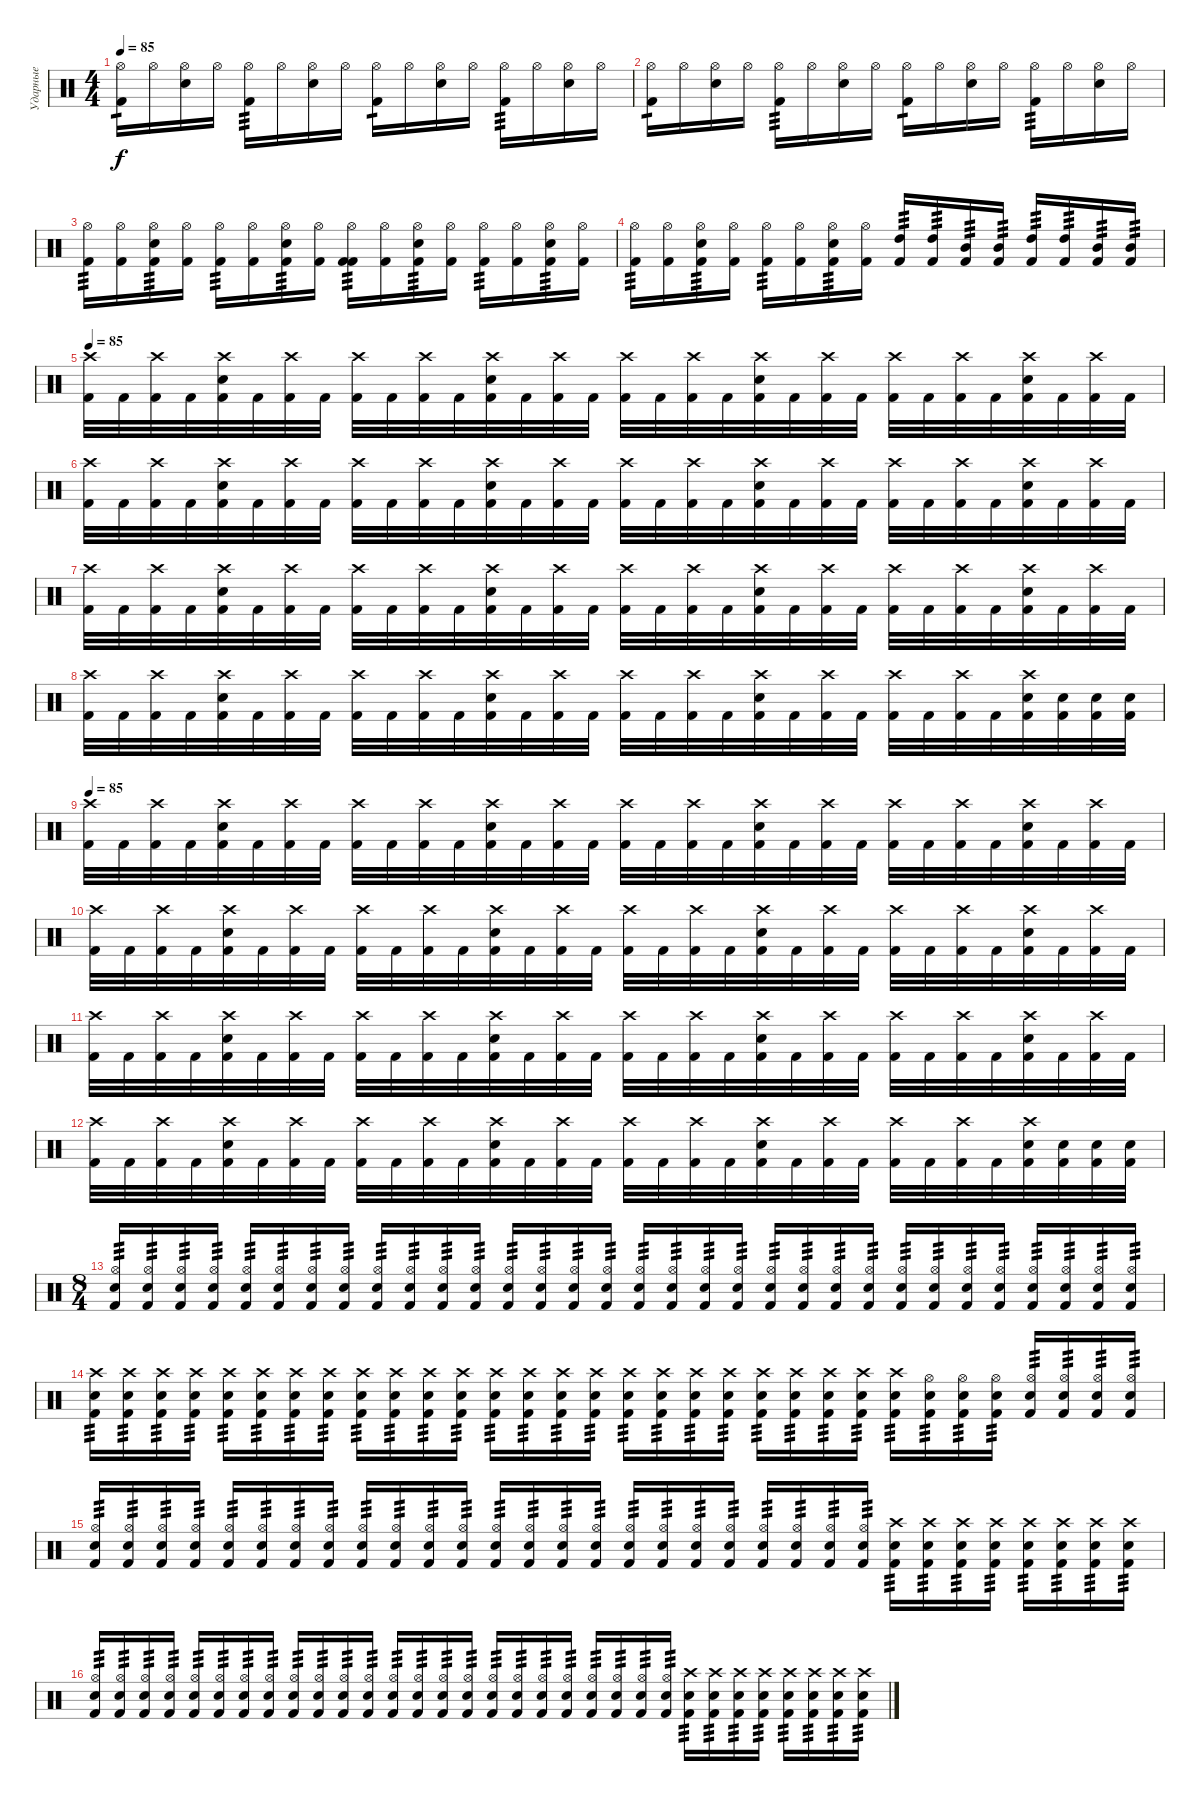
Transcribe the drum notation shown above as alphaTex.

\track ("Ударные" "Ударные") {instrument percussion}
\staff {score}
\articulation defaults
\ts (4 4)
\tempo 85
\clef neutral
\ks c
("Kick (hit) 2" "Hi-Hat (open)").16{tp 1 dy f} "Hi-Hat (open)".16 ("Snare (hit) 2" "Hi-Hat (open)").16 "Hi-Hat (open)".16 ("Kick (hit) 2" "Hi-Hat (open)").16{tp 3} "Hi-Hat (open)".16 ("Snare (hit) 2" "Hi-Hat (open)").16 "Hi-Hat (open)".16 ("Kick (hit) 2" "Hi-Hat (open)").16{tp 1} "Hi-Hat (open)".16 ("Snare (hit) 2" "Hi-Hat (open)").16 "Hi-Hat (open)".16 ("Kick (hit) 2" "Hi-Hat (open)").16{tp 3} "Hi-Hat (open)".16 ("Snare (hit) 2" "Hi-Hat (open)").16 "Hi-Hat (open)".16 |
("Kick (hit) 2" "Hi-Hat (open)").16{tp 1} "Hi-Hat (open)".16 ("Snare (hit) 2" "Hi-Hat (open)").16 "Hi-Hat (open)".16 ("Kick (hit) 2" "Hi-Hat (open)").16{tp 3} "Hi-Hat (open)".16 ("Snare (hit) 2" "Hi-Hat (open)").16 "Hi-Hat (open)".16 ("Kick (hit) 2" "Hi-Hat (open)").16{tp 1} "Hi-Hat (open)".16 ("Snare (hit) 2" "Hi-Hat (open)").16 "Hi-Hat (open)".16 ("Kick (hit) 2" "Hi-Hat (open)").16{tp 3} "Hi-Hat (open)".16 ("Snare (hit) 2" "Hi-Hat (open)").16 "Hi-Hat (open)".16 |
("Kick (hit) 2" "Hi-Hat (open)").16{tp 3} ("Hi-Hat (open)" "Kick (hit) 2").16 ("Snare (hit) 2" "Hi-Hat (open)" "Kick (hit) 2").16{tp 3} ("Hi-Hat (open)" "Kick (hit) 2").16 ("Kick (hit) 2" "Hi-Hat (open)").16{tp 3} ("Hi-Hat (open)" "Kick (hit) 2").16 ("Snare (hit) 2" "Hi-Hat (open)" "Kick (hit) 2").16{tp 3} ("Hi-Hat (open)" "Kick (hit) 2").16 ("Kick (hit) 2" "Hi-Hat (open)" "Kick (hit) 2").16{tp 3} ("Hi-Hat (open)" "Kick (hit) 2").16 ("Snare (hit) 2" "Hi-Hat (open)" "Kick (hit) 2").16{tp 3} ("Hi-Hat (open)" "Kick (hit) 2").16 ("Kick (hit) 2" "Hi-Hat (open)").16{tp 3} ("Hi-Hat (open)" "Kick (hit) 2").16 ("Snare (hit) 2" "Hi-Hat (open)" "Kick (hit) 2").16{tp 3} ("Hi-Hat (open)" "Kick (hit) 2").16 |
("Kick (hit) 2" "Hi-Hat (open)").16{tp 3} ("Hi-Hat (open)" "Kick (hit) 2").16 ("Snare (hit) 2" "Hi-Hat (open)" "Kick (hit) 2").16{tp 3} ("Hi-Hat (open)" "Kick (hit) 2").16 ("Kick (hit) 2" "Hi-Hat (open)").16{tp 3} ("Hi-Hat (open)" "Kick (hit) 2").16 ("Snare (hit) 2" "Hi-Hat (open)" "Kick (hit) 2").16{tp 3} ("Hi-Hat (open)" "Kick (hit) 2").16 ("High Tom (hit)" "Kick (hit) 2").16{tp 3} ("High Tom (hit)" "Kick (hit) 2").16{tp 3} ("Mid Tom (hit)" "Kick (hit) 2").16{tp 3} ("Mid Tom (hit)" "Kick (hit) 2").16{tp 3} ("High Tom (hit)" "Kick (hit) 2").16{tp 3} ("High Tom (hit)" "Kick (hit) 2").16{tp 3} ("Mid Tom (hit)" "Kick (hit) 2").16{tp 3} ("Mid Tom (hit)" "Kick (hit) 2").16{tp 3} |
\tempo 85
("Kick (hit) 2" "Crash high (hit)").32 "Kick (hit) 2".32 ("Kick (hit) 2" "Crash high (hit)").32 "Kick (hit) 2".32 ("Kick (hit) 2" "Snare (hit) 2" "Crash high (hit)").32 "Kick (hit) 2".32 ("Kick (hit) 2" "Crash high (hit)").32 "Kick (hit) 2".32 ("Kick (hit) 2" "Crash high (hit)").32 "Kick (hit) 2".32 ("Kick (hit) 2" "Crash high (hit)").32 "Kick (hit) 2".32 ("Kick (hit) 2" "Snare (hit) 2" "Crash high (hit)").32 "Kick (hit) 2".32 ("Kick (hit) 2" "Crash high (hit)").32 "Kick (hit) 2".32 ("Kick (hit) 2" "Crash high (hit)").32 "Kick (hit) 2".32 ("Kick (hit) 2" "Crash high (hit)").32 "Kick (hit) 2".32 ("Kick (hit) 2" "Snare (hit) 2" "Crash high (hit)").32 "Kick (hit) 2".32 ("Kick (hit) 2" "Crash high (hit)").32 "Kick (hit) 2".32 ("Kick (hit) 2" "Crash high (hit)").32 "Kick (hit) 2".32 ("Kick (hit) 2" "Crash high (hit)").32 "Kick (hit) 2".32 ("Kick (hit) 2" "Snare (hit) 2" "Crash high (hit)").32 "Kick (hit) 2".32 ("Kick (hit) 2" "Crash high (hit)").32 "Kick (hit) 2".32 |
("Kick (hit) 2" "Crash high (hit)").32 "Kick (hit) 2".32 ("Kick (hit) 2" "Crash high (hit)").32 "Kick (hit) 2".32 ("Kick (hit) 2" "Snare (hit) 2" "Crash high (hit)").32 "Kick (hit) 2".32 ("Kick (hit) 2" "Crash high (hit)").32 "Kick (hit) 2".32 ("Kick (hit) 2" "Crash high (hit)").32 "Kick (hit) 2".32 ("Kick (hit) 2" "Crash high (hit)").32 "Kick (hit) 2".32 ("Kick (hit) 2" "Snare (hit) 2" "Crash high (hit)").32 "Kick (hit) 2".32 ("Kick (hit) 2" "Crash high (hit)").32 "Kick (hit) 2".32 ("Kick (hit) 2" "Crash high (hit)").32 "Kick (hit) 2".32 ("Kick (hit) 2" "Crash high (hit)").32 "Kick (hit) 2".32 ("Kick (hit) 2" "Snare (hit) 2" "Crash high (hit)").32 "Kick (hit) 2".32 ("Kick (hit) 2" "Crash high (hit)").32 "Kick (hit) 2".32 ("Kick (hit) 2" "Crash high (hit)").32 "Kick (hit) 2".32 ("Kick (hit) 2" "Crash high (hit)").32 "Kick (hit) 2".32 ("Kick (hit) 2" "Snare (hit) 2" "Crash high (hit)").32 "Kick (hit) 2".32 ("Kick (hit) 2" "Crash high (hit)").32 "Kick (hit) 2".32 |
("Kick (hit) 2" "Crash high (hit)").32 "Kick (hit) 2".32 ("Kick (hit) 2" "Crash high (hit)").32 "Kick (hit) 2".32 ("Kick (hit) 2" "Snare (hit) 2" "Crash high (hit)").32 "Kick (hit) 2".32 ("Kick (hit) 2" "Crash high (hit)").32 "Kick (hit) 2".32 ("Kick (hit) 2" "Crash high (hit)").32 "Kick (hit) 2".32 ("Kick (hit) 2" "Crash high (hit)").32 "Kick (hit) 2".32 ("Kick (hit) 2" "Snare (hit) 2" "Crash high (hit)").32 "Kick (hit) 2".32 ("Kick (hit) 2" "Crash high (hit)").32 "Kick (hit) 2".32 ("Kick (hit) 2" "Crash high (hit)").32 "Kick (hit) 2".32 ("Kick (hit) 2" "Crash high (hit)").32 "Kick (hit) 2".32 ("Kick (hit) 2" "Snare (hit) 2" "Crash high (hit)").32 "Kick (hit) 2".32 ("Kick (hit) 2" "Crash high (hit)").32 "Kick (hit) 2".32 ("Kick (hit) 2" "Crash high (hit)").32 "Kick (hit) 2".32 ("Kick (hit) 2" "Crash high (hit)").32 "Kick (hit) 2".32 ("Kick (hit) 2" "Snare (hit) 2" "Crash high (hit)").32 "Kick (hit) 2".32 ("Kick (hit) 2" "Crash high (hit)").32 "Kick (hit) 2".32 |
("Kick (hit) 2" "Crash high (hit)").32 "Kick (hit) 2".32 ("Kick (hit) 2" "Crash high (hit)").32 "Kick (hit) 2".32 ("Kick (hit) 2" "Snare (hit) 2" "Crash high (hit)").32 "Kick (hit) 2".32 ("Kick (hit) 2" "Crash high (hit)").32 "Kick (hit) 2".32 ("Kick (hit) 2" "Crash high (hit)").32 "Kick (hit) 2".32 ("Kick (hit) 2" "Crash high (hit)").32 "Kick (hit) 2".32 ("Kick (hit) 2" "Snare (hit) 2" "Crash high (hit)").32 "Kick (hit) 2".32 ("Kick (hit) 2" "Crash high (hit)").32 "Kick (hit) 2".32 ("Kick (hit) 2" "Crash high (hit)").32 "Kick (hit) 2".32 ("Kick (hit) 2" "Crash high (hit)").32 "Kick (hit) 2".32 ("Kick (hit) 2" "Snare (hit) 2" "Crash high (hit)").32 "Kick (hit) 2".32 ("Kick (hit) 2" "Crash high (hit)").32 "Kick (hit) 2".32 ("Kick (hit) 2" "Crash high (hit)").32 "Kick (hit) 2".32 ("Kick (hit) 2" "Crash high (hit)").32 "Kick (hit) 2".32 ("Kick (hit) 2" "Snare (hit) 2" "Crash high (hit)").32 ("Kick (hit) 2" "Snare (hit) 2").32 ("Kick (hit) 2" "Snare (hit) 2").32 ("Kick (hit) 2" "Snare (hit) 2").32 |
\tempo 85
("Kick (hit) 2" "Crash high (hit)").32 "Kick (hit) 2".32 ("Kick (hit) 2" "Crash high (hit)").32 "Kick (hit) 2".32 ("Kick (hit) 2" "Snare (hit) 2" "Crash high (hit)").32 "Kick (hit) 2".32 ("Kick (hit) 2" "Crash high (hit)").32 "Kick (hit) 2".32 ("Kick (hit) 2" "Crash high (hit)").32 "Kick (hit) 2".32 ("Kick (hit) 2" "Crash high (hit)").32 "Kick (hit) 2".32 ("Kick (hit) 2" "Snare (hit) 2" "Crash high (hit)").32 "Kick (hit) 2".32 ("Kick (hit) 2" "Crash high (hit)").32 "Kick (hit) 2".32 ("Kick (hit) 2" "Crash high (hit)").32 "Kick (hit) 2".32 ("Kick (hit) 2" "Crash high (hit)").32 "Kick (hit) 2".32 ("Kick (hit) 2" "Snare (hit) 2" "Crash high (hit)").32 "Kick (hit) 2".32 ("Kick (hit) 2" "Crash high (hit)").32 "Kick (hit) 2".32 ("Kick (hit) 2" "Crash high (hit)").32 "Kick (hit) 2".32 ("Kick (hit) 2" "Crash high (hit)").32 "Kick (hit) 2".32 ("Kick (hit) 2" "Snare (hit) 2" "Crash high (hit)").32 "Kick (hit) 2".32 ("Kick (hit) 2" "Crash high (hit)").32 "Kick (hit) 2".32 |
("Kick (hit) 2" "Crash high (hit)").32 "Kick (hit) 2".32 ("Kick (hit) 2" "Crash high (hit)").32 "Kick (hit) 2".32 ("Kick (hit) 2" "Snare (hit) 2" "Crash high (hit)").32 "Kick (hit) 2".32 ("Kick (hit) 2" "Crash high (hit)").32 "Kick (hit) 2".32 ("Kick (hit) 2" "Crash high (hit)").32 "Kick (hit) 2".32 ("Kick (hit) 2" "Crash high (hit)").32 "Kick (hit) 2".32 ("Kick (hit) 2" "Snare (hit) 2" "Crash high (hit)").32 "Kick (hit) 2".32 ("Kick (hit) 2" "Crash high (hit)").32 "Kick (hit) 2".32 ("Kick (hit) 2" "Crash high (hit)").32 "Kick (hit) 2".32 ("Kick (hit) 2" "Crash high (hit)").32 "Kick (hit) 2".32 ("Kick (hit) 2" "Snare (hit) 2" "Crash high (hit)").32 "Kick (hit) 2".32 ("Kick (hit) 2" "Crash high (hit)").32 "Kick (hit) 2".32 ("Kick (hit) 2" "Crash high (hit)").32 "Kick (hit) 2".32 ("Kick (hit) 2" "Crash high (hit)").32 "Kick (hit) 2".32 ("Kick (hit) 2" "Snare (hit) 2" "Crash high (hit)").32 "Kick (hit) 2".32 ("Kick (hit) 2" "Crash high (hit)").32 "Kick (hit) 2".32 |
("Kick (hit) 2" "Crash high (hit)").32 "Kick (hit) 2".32 ("Kick (hit) 2" "Crash high (hit)").32 "Kick (hit) 2".32 ("Kick (hit) 2" "Snare (hit) 2" "Crash high (hit)").32 "Kick (hit) 2".32 ("Kick (hit) 2" "Crash high (hit)").32 "Kick (hit) 2".32 ("Kick (hit) 2" "Crash high (hit)").32 "Kick (hit) 2".32 ("Kick (hit) 2" "Crash high (hit)").32 "Kick (hit) 2".32 ("Kick (hit) 2" "Snare (hit) 2" "Crash high (hit)").32 "Kick (hit) 2".32 ("Kick (hit) 2" "Crash high (hit)").32 "Kick (hit) 2".32 ("Kick (hit) 2" "Crash high (hit)").32 "Kick (hit) 2".32 ("Kick (hit) 2" "Crash high (hit)").32 "Kick (hit) 2".32 ("Kick (hit) 2" "Snare (hit) 2" "Crash high (hit)").32 "Kick (hit) 2".32 ("Kick (hit) 2" "Crash high (hit)").32 "Kick (hit) 2".32 ("Kick (hit) 2" "Crash high (hit)").32 "Kick (hit) 2".32 ("Kick (hit) 2" "Crash high (hit)").32 "Kick (hit) 2".32 ("Kick (hit) 2" "Snare (hit) 2" "Crash high (hit)").32 "Kick (hit) 2".32 ("Kick (hit) 2" "Crash high (hit)").32 "Kick (hit) 2".32 |
("Kick (hit) 2" "Crash high (hit)").32 "Kick (hit) 2".32 ("Kick (hit) 2" "Crash high (hit)").32 "Kick (hit) 2".32 ("Kick (hit) 2" "Snare (hit) 2" "Crash high (hit)").32 "Kick (hit) 2".32 ("Kick (hit) 2" "Crash high (hit)").32 "Kick (hit) 2".32 ("Kick (hit) 2" "Crash high (hit)").32 "Kick (hit) 2".32 ("Kick (hit) 2" "Crash high (hit)").32 "Kick (hit) 2".32 ("Kick (hit) 2" "Snare (hit) 2" "Crash high (hit)").32 "Kick (hit) 2".32 ("Kick (hit) 2" "Crash high (hit)").32 "Kick (hit) 2".32 ("Kick (hit) 2" "Crash high (hit)").32 "Kick (hit) 2".32 ("Kick (hit) 2" "Crash high (hit)").32 "Kick (hit) 2".32 ("Kick (hit) 2" "Snare (hit) 2" "Crash high (hit)").32 "Kick (hit) 2".32 ("Kick (hit) 2" "Crash high (hit)").32 "Kick (hit) 2".32 ("Kick (hit) 2" "Crash high (hit)").32 "Kick (hit) 2".32 ("Kick (hit) 2" "Crash high (hit)").32 "Kick (hit) 2".32 ("Kick (hit) 2" "Snare (hit) 2" "Crash high (hit)").32 ("Kick (hit) 2" "Snare (hit) 2").32 ("Kick (hit) 2" "Snare (hit) 2").32 ("Kick (hit) 2" "Snare (hit) 2").32 |
\ts (8 4)
("Hi-Hat (open)" "Snare (hit) 2" "Kick (hit) 2").16{tp 3} ("Hi-Hat (open)" "Snare (hit) 2" "Kick (hit) 2").16{tp 3} ("Hi-Hat (open)" "Snare (hit) 2" "Kick (hit) 2").16{tp 3} ("Hi-Hat (open)" "Snare (hit) 2" "Kick (hit) 2").16{tp 3} ("Hi-Hat (open)" "Snare (hit) 2" "Kick (hit) 2").16{tp 3} ("Hi-Hat (open)" "Snare (hit) 2" "Kick (hit) 2").16{tp 3} ("Hi-Hat (open)" "Snare (hit) 2" "Kick (hit) 2").16{tp 3} ("Hi-Hat (open)" "Snare (hit) 2" "Kick (hit) 2").16{tp 3} ("Hi-Hat (open)" "Snare (hit) 2" "Kick (hit) 2").16{tp 3} ("Hi-Hat (open)" "Snare (hit) 2" "Kick (hit) 2").16{tp 3} ("Hi-Hat (open)" "Snare (hit) 2" "Kick (hit) 2").16{tp 3} ("Hi-Hat (open)" "Snare (hit) 2" "Kick (hit) 2").16{tp 3} ("Hi-Hat (open)" "Snare (hit) 2" "Kick (hit) 2").16{tp 3} ("Hi-Hat (open)" "Snare (hit) 2" "Kick (hit) 2").16{tp 3} ("Hi-Hat (open)" "Snare (hit) 2" "Kick (hit) 2").16{tp 3} ("Hi-Hat (open)" "Snare (hit) 2" "Kick (hit) 2").16{tp 3} ("Hi-Hat (open)" "Snare (hit) 2" "Kick (hit) 2").16{tp 3} ("Hi-Hat (open)" "Snare (hit) 2" "Kick (hit) 2").16{tp 3} ("Hi-Hat (open)" "Snare (hit) 2" "Kick (hit) 2").16{tp 3} ("Hi-Hat (open)" "Snare (hit) 2" "Kick (hit) 2").16{tp 3} ("Hi-Hat (open)" "Snare (hit) 2" "Kick (hit) 2").16{tp 3} ("Hi-Hat (open)" "Snare (hit) 2" "Kick (hit) 2").16{tp 3} ("Hi-Hat (open)" "Snare (hit) 2" "Kick (hit) 2").16{tp 3} ("Hi-Hat (open)" "Snare (hit) 2" "Kick (hit) 2").16{tp 3} ("Hi-Hat (open)" "Snare (hit) 2" "Kick (hit) 2").16{tp 3} ("Hi-Hat (open)" "Snare (hit) 2" "Kick (hit) 2").16{tp 3} ("Hi-Hat (open)" "Snare (hit) 2" "Kick (hit) 2").16{tp 3} ("Hi-Hat (open)" "Snare (hit) 2" "Kick (hit) 2").16{tp 3} ("Hi-Hat (open)" "Snare (hit) 2" "Kick (hit) 2").16{tp 3} ("Hi-Hat (open)" "Snare (hit) 2" "Kick (hit) 2").16{tp 3} ("Hi-Hat (open)" "Snare (hit) 2" "Kick (hit) 2").16{tp 3} ("Hi-Hat (open)" "Snare (hit) 2" "Kick (hit) 2").16{tp 3} |
("Crash high (hit)" "Snare (hit) 2" "Kick (hit) 2").16{tp 3} ("Crash high (hit)" "Snare (hit) 2" "Kick (hit) 2").16{tp 3} ("Crash high (hit)" "Snare (hit) 2" "Kick (hit) 2").16{tp 3} ("Crash high (hit)" "Snare (hit) 2" "Kick (hit) 2").16{tp 3} ("Crash high (hit)" "Snare (hit) 2" "Kick (hit) 2").16{tp 3} ("Crash high (hit)" "Snare (hit) 2" "Kick (hit) 2").16{tp 3} ("Crash high (hit)" "Snare (hit) 2" "Kick (hit) 2").16{tp 3} ("Crash high (hit)" "Snare (hit) 2" "Kick (hit) 2").16{tp 3} ("Crash high (hit)" "Snare (hit) 2" "Kick (hit) 2").16{tp 3} ("Crash high (hit)" "Snare (hit) 2" "Kick (hit) 2").16{tp 3} ("Crash high (hit)" "Snare (hit) 2" "Kick (hit) 2").16{tp 3} ("Crash high (hit)" "Snare (hit) 2" "Kick (hit) 2").16{tp 3} ("Crash high (hit)" "Snare (hit) 2" "Kick (hit) 2").16{tp 3} ("Crash high (hit)" "Snare (hit) 2" "Kick (hit) 2").16{tp 3} ("Crash high (hit)" "Snare (hit) 2" "Kick (hit) 2").16{tp 3} ("Crash high (hit)" "Snare (hit) 2" "Kick (hit) 2").16{tp 3} ("Crash high (hit)" "Snare (hit) 2" "Kick (hit) 2").16{tp 3} ("Crash high (hit)" "Snare (hit) 2" "Kick (hit) 2").16{tp 3} ("Crash high (hit)" "Snare (hit) 2" "Kick (hit) 2").16{tp 3} ("Crash high (hit)" "Snare (hit) 2" "Kick (hit) 2").16{tp 3} ("Crash high (hit)" "Snare (hit) 2" "Kick (hit) 2").16{tp 3} ("Crash high (hit)" "Snare (hit) 2" "Kick (hit) 2").16{tp 3} ("Crash high (hit)" "Snare (hit) 2" "Kick (hit) 2").16{tp 3} ("Crash high (hit)" "Snare (hit) 2" "Kick (hit) 2").16{tp 3} ("Crash high (hit)" "Snare (hit) 2" "Kick (hit) 2").16{tp 3} ("Hi-Hat (open)" "Snare (hit) 2" "Kick (hit) 2").16{tp 3} ("Hi-Hat (open)" "Snare (hit) 2" "Kick (hit) 2").16{tp 3} ("Hi-Hat (open)" "Snare (hit) 2" "Kick (hit) 2").16{tp 3} ("Hi-Hat (open)" "Snare (hit) 2" "Kick (hit) 2").16{tp 3} ("Hi-Hat (open)" "Snare (hit) 2" "Kick (hit) 2").16{tp 3} ("Hi-Hat (open)" "Snare (hit) 2" "Kick (hit) 2").16{tp 3} ("Hi-Hat (open)" "Snare (hit) 2" "Kick (hit) 2").16{tp 3} |
("Hi-Hat (open)" "Snare (hit) 2" "Kick (hit) 2").16{tp 3} ("Hi-Hat (open)" "Snare (hit) 2" "Kick (hit) 2").16{tp 3} ("Hi-Hat (open)" "Snare (hit) 2" "Kick (hit) 2").16{tp 3} ("Hi-Hat (open)" "Snare (hit) 2" "Kick (hit) 2").16{tp 3} ("Hi-Hat (open)" "Snare (hit) 2" "Kick (hit) 2").16{tp 3} ("Hi-Hat (open)" "Snare (hit) 2" "Kick (hit) 2").16{tp 3} ("Hi-Hat (open)" "Snare (hit) 2" "Kick (hit) 2").16{tp 3} ("Hi-Hat (open)" "Snare (hit) 2" "Kick (hit) 2").16{tp 3} ("Hi-Hat (open)" "Snare (hit) 2" "Kick (hit) 2").16{tp 3} ("Hi-Hat (open)" "Snare (hit) 2" "Kick (hit) 2").16{tp 3} ("Hi-Hat (open)" "Snare (hit) 2" "Kick (hit) 2").16{tp 3} ("Hi-Hat (open)" "Snare (hit) 2" "Kick (hit) 2").16{tp 3} ("Hi-Hat (open)" "Snare (hit) 2" "Kick (hit) 2").16{tp 3} ("Hi-Hat (open)" "Snare (hit) 2" "Kick (hit) 2").16{tp 3} ("Hi-Hat (open)" "Snare (hit) 2" "Kick (hit) 2").16{tp 3} ("Hi-Hat (open)" "Snare (hit) 2" "Kick (hit) 2").16{tp 3} ("Hi-Hat (open)" "Snare (hit) 2" "Kick (hit) 2").16{tp 3} ("Hi-Hat (open)" "Snare (hit) 2" "Kick (hit) 2").16{tp 3} ("Hi-Hat (open)" "Snare (hit) 2" "Kick (hit) 2").16{tp 3} ("Hi-Hat (open)" "Snare (hit) 2" "Kick (hit) 2").16{tp 3} ("Hi-Hat (open)" "Snare (hit) 2" "Kick (hit) 2").16{tp 3} ("Hi-Hat (open)" "Snare (hit) 2" "Kick (hit) 2").16{tp 3} ("Hi-Hat (open)" "Snare (hit) 2" "Kick (hit) 2").16{tp 3} ("Hi-Hat (open)" "Snare (hit) 2" "Kick (hit) 2").16{tp 3} ("Crash high (hit)" "Snare (hit) 2" "Kick (hit) 2").16{tp 3} ("Crash high (hit)" "Snare (hit) 2" "Kick (hit) 2").16{tp 3} ("Crash high (hit)" "Snare (hit) 2" "Kick (hit) 2").16{tp 3} ("Crash high (hit)" "Snare (hit) 2" "Kick (hit) 2").16{tp 3} ("Crash high (hit)" "Snare (hit) 2" "Kick (hit) 2").16{tp 3} ("Crash high (hit)" "Snare (hit) 2" "Kick (hit) 2").16{tp 3} ("Crash high (hit)" "Snare (hit) 2" "Kick (hit) 2").16{tp 3} ("Crash high (hit)" "Snare (hit) 2" "Kick (hit) 2").16{tp 3} |
("Hi-Hat (open)" "Snare (hit) 2" "Kick (hit) 2").16{tp 3} ("Hi-Hat (open)" "Snare (hit) 2" "Kick (hit) 2").16{tp 3} ("Hi-Hat (open)" "Snare (hit) 2" "Kick (hit) 2").16{tp 3} ("Hi-Hat (open)" "Snare (hit) 2" "Kick (hit) 2").16{tp 3} ("Hi-Hat (open)" "Snare (hit) 2" "Kick (hit) 2").16{tp 3} ("Hi-Hat (open)" "Snare (hit) 2" "Kick (hit) 2").16{tp 3} ("Hi-Hat (open)" "Snare (hit) 2" "Kick (hit) 2").16{tp 3} ("Hi-Hat (open)" "Snare (hit) 2" "Kick (hit) 2").16{tp 3} ("Hi-Hat (open)" "Snare (hit) 2" "Kick (hit) 2").16{tp 3} ("Hi-Hat (open)" "Snare (hit) 2" "Kick (hit) 2").16{tp 3} ("Hi-Hat (open)" "Snare (hit) 2" "Kick (hit) 2").16{tp 3} ("Hi-Hat (open)" "Snare (hit) 2" "Kick (hit) 2").16{tp 3} ("Hi-Hat (open)" "Snare (hit) 2" "Kick (hit) 2").16{tp 3} ("Hi-Hat (open)" "Snare (hit) 2" "Kick (hit) 2").16{tp 3} ("Hi-Hat (open)" "Snare (hit) 2" "Kick (hit) 2").16{tp 3} ("Hi-Hat (open)" "Snare (hit) 2" "Kick (hit) 2").16{tp 3} ("Hi-Hat (open)" "Snare (hit) 2" "Kick (hit) 2").16{tp 3} ("Hi-Hat (open)" "Snare (hit) 2" "Kick (hit) 2").16{tp 3} ("Hi-Hat (open)" "Snare (hit) 2" "Kick (hit) 2").16{tp 3} ("Hi-Hat (open)" "Snare (hit) 2" "Kick (hit) 2").16{tp 3} ("Hi-Hat (open)" "Snare (hit) 2" "Kick (hit) 2").16{tp 3} ("Hi-Hat (open)" "Snare (hit) 2" "Kick (hit) 2").16{tp 3} ("Hi-Hat (open)" "Snare (hit) 2" "Kick (hit) 2").16{tp 3} ("Hi-Hat (open)" "Snare (hit) 2" "Kick (hit) 2").16{tp 3} ("Crash high (hit)" "Snare (hit) 2" "Kick (hit) 2").16{tp 3} ("Crash high (hit)" "Snare (hit) 2" "Kick (hit) 2").16{tp 3} ("Crash high (hit)" "Snare (hit) 2" "Kick (hit) 2").16{tp 3} ("Crash high (hit)" "Snare (hit) 2" "Kick (hit) 2").16{tp 3} ("Crash high (hit)" "Snare (hit) 2" "Kick (hit) 2").16{tp 3} ("Crash high (hit)" "Snare (hit) 2" "Kick (hit) 2").16{tp 3} ("Crash high (hit)" "Snare (hit) 2" "Kick (hit) 2").16{tp 3} ("Crash high (hit)" "Snare (hit) 2" "Kick (hit) 2").16{tp 3}
